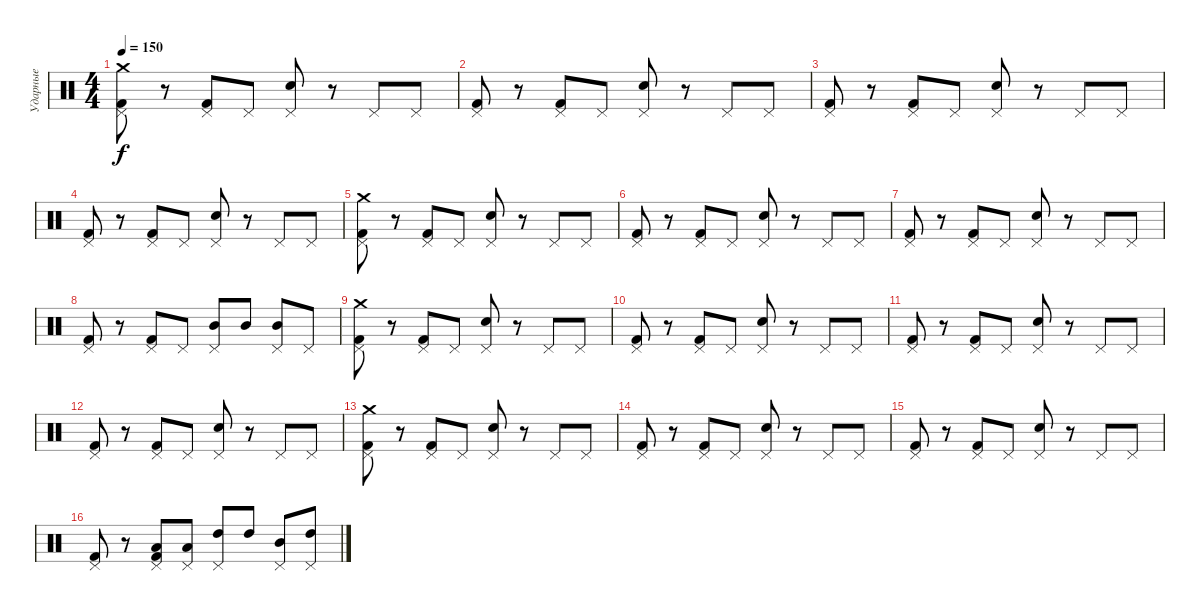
\track ("Ударные" "Ударные") {instrument percussion}
\staff {score}
\articulation defaults
\ts (4 4)
\tempo 150
\clef neutral
\ks c
("Crash medium (hit)" "Kick (hit) 2" "Pedal Hi-Hat (hit)").8{dy f} r.8 ("Kick (hit) 2" "Pedal Hi-Hat (hit)").8 "Pedal Hi-Hat (hit)".8 ("Pedal Hi-Hat (hit)" "Electric Snare (hit)").8 r.8 "Pedal Hi-Hat (hit)".8 "Pedal Hi-Hat (hit)".8 |
("Kick (hit) 2" "Pedal Hi-Hat (hit)").8 r.8 ("Kick (hit) 2" "Pedal Hi-Hat (hit)").8 "Pedal Hi-Hat (hit)".8 ("Pedal Hi-Hat (hit)" "Electric Snare (hit)").8 r.8 "Pedal Hi-Hat (hit)".8 "Pedal Hi-Hat (hit)".8 |
("Kick (hit) 2" "Pedal Hi-Hat (hit)").8 r.8 ("Kick (hit) 2" "Pedal Hi-Hat (hit)").8 "Pedal Hi-Hat (hit)".8 ("Pedal Hi-Hat (hit)" "Electric Snare (hit)").8 r.8 "Pedal Hi-Hat (hit)".8 "Pedal Hi-Hat (hit)".8 |
("Kick (hit) 2" "Pedal Hi-Hat (hit)").8 r.8 ("Kick (hit) 2" "Pedal Hi-Hat (hit)").8 "Pedal Hi-Hat (hit)".8 ("Pedal Hi-Hat (hit)" "Electric Snare (hit)").8 r.8 "Pedal Hi-Hat (hit)".8 "Pedal Hi-Hat (hit)".8 |
("Crash medium (hit)" "Kick (hit) 2" "Pedal Hi-Hat (hit)").8 r.8 ("Kick (hit) 2" "Pedal Hi-Hat (hit)").8 "Pedal Hi-Hat (hit)".8 ("Pedal Hi-Hat (hit)" "Electric Snare (hit)").8 r.8 "Pedal Hi-Hat (hit)".8 "Pedal Hi-Hat (hit)".8 |
("Kick (hit) 2" "Pedal Hi-Hat (hit)").8 r.8 ("Kick (hit) 2" "Pedal Hi-Hat (hit)").8 "Pedal Hi-Hat (hit)".8 ("Pedal Hi-Hat (hit)" "Electric Snare (hit)").8 r.8 "Pedal Hi-Hat (hit)".8 "Pedal Hi-Hat (hit)".8 |
("Kick (hit) 2" "Pedal Hi-Hat (hit)").8 r.8 ("Kick (hit) 2" "Pedal Hi-Hat (hit)").8 "Pedal Hi-Hat (hit)".8 ("Pedal Hi-Hat (hit)" "Electric Snare (hit)").8 r.8 "Pedal Hi-Hat (hit)".8 "Pedal Hi-Hat (hit)".8 |
("Kick (hit) 2" "Pedal Hi-Hat (hit)").8 r.8 ("Kick (hit) 2" "Pedal Hi-Hat (hit)").8 "Pedal Hi-Hat (hit)".8 ("Mid Tom (hit)" "Pedal Hi-Hat (hit)").8 "Mid Tom (hit)".8 ("Mid Tom (hit)" "Pedal Hi-Hat (hit)").8 "Pedal Hi-Hat (hit)".8 |
("Crash medium (hit)" "Kick (hit) 2" "Pedal Hi-Hat (hit)").8 r.8 ("Kick (hit) 2" "Pedal Hi-Hat (hit)").8 "Pedal Hi-Hat (hit)".8 ("Pedal Hi-Hat (hit)" "Electric Snare (hit)").8 r.8 "Pedal Hi-Hat (hit)".8 "Pedal Hi-Hat (hit)".8 |
("Kick (hit) 2" "Pedal Hi-Hat (hit)").8 r.8 ("Kick (hit) 2" "Pedal Hi-Hat (hit)").8 "Pedal Hi-Hat (hit)".8 ("Pedal Hi-Hat (hit)" "Electric Snare (hit)").8 r.8 "Pedal Hi-Hat (hit)".8 "Pedal Hi-Hat (hit)".8 |
("Kick (hit) 2" "Pedal Hi-Hat (hit)").8 r.8 ("Kick (hit) 2" "Pedal Hi-Hat (hit)").8 "Pedal Hi-Hat (hit)".8 ("Pedal Hi-Hat (hit)" "Electric Snare (hit)").8 r.8 "Pedal Hi-Hat (hit)".8 "Pedal Hi-Hat (hit)".8 |
("Kick (hit) 2" "Pedal Hi-Hat (hit)").8 r.8 ("Kick (hit) 2" "Pedal Hi-Hat (hit)").8 "Pedal Hi-Hat (hit)".8 ("Pedal Hi-Hat (hit)" "Electric Snare (hit)").8 r.8 "Pedal Hi-Hat (hit)".8 "Pedal Hi-Hat (hit)".8 |
("Crash medium (hit)" "Kick (hit) 2" "Pedal Hi-Hat (hit)").8 r.8 ("Kick (hit) 2" "Pedal Hi-Hat (hit)").8 "Pedal Hi-Hat (hit)".8 ("Pedal Hi-Hat (hit)" "Electric Snare (hit)").8 r.8 "Pedal Hi-Hat (hit)".8 "Pedal Hi-Hat (hit)".8 |
("Kick (hit) 2" "Pedal Hi-Hat (hit)").8 r.8 ("Kick (hit) 2" "Pedal Hi-Hat (hit)").8 "Pedal Hi-Hat (hit)".8 ("Pedal Hi-Hat (hit)" "Electric Snare (hit)").8 r.8 "Pedal Hi-Hat (hit)".8 "Pedal Hi-Hat (hit)".8 |
("Kick (hit) 2" "Pedal Hi-Hat (hit)").8 r.8 ("Kick (hit) 2" "Pedal Hi-Hat (hit)").8 "Pedal Hi-Hat (hit)".8 ("Pedal Hi-Hat (hit)" "Electric Snare (hit)").8 r.8 "Pedal Hi-Hat (hit)".8 "Pedal Hi-Hat (hit)".8 |
("Kick (hit) 2" "Pedal Hi-Hat (hit)").8 r.8 ("Low Tom (hit)" "Pedal Hi-Hat (hit)" "Kick (hit) 2").8 ("Low Tom (hit)" "Pedal Hi-Hat (hit)").8 ("High Tom (hit)" "Pedal Hi-Hat (hit)").8 "High Tom (hit)".8 ("Mid Tom (hit)" "Pedal Hi-Hat (hit)").8 ("High Tom (hit)" "Pedal Hi-Hat (hit)").8
